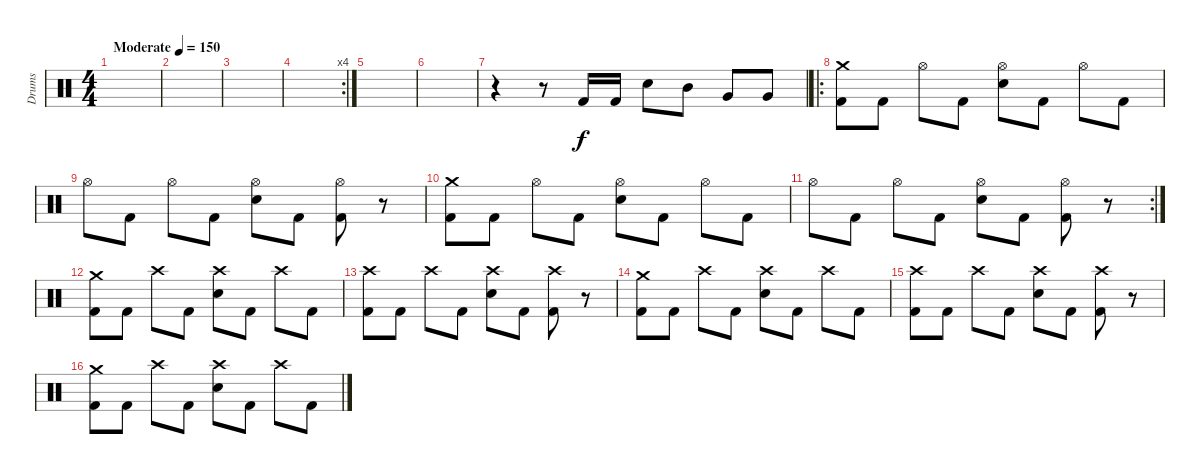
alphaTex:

\track ("Drums" "Drums") {instrument percussion}
\staff {score}
\articulation defaults
\ts (4 4)
\tempo (150 "Moderate")
\clef neutral
\ks c
|
|
|
\rc 4
|
|
|
r.4 r.8 "Kick (hit) 2".16 "Kick (hit) 2".16 "Electric Snare (hit)".8 "Mid Tom (hit)".8 "Very Low Tom (hit)".8 "Very Low Tom (hit)".8 |
\ro
("Kick (hit) 2" "Crash medium (hit)").8 "Kick (hit) 2".8 "Hi-Hat (open)".8 "Kick (hit) 2".8 ("Electric Snare (hit)" "Hi-Hat (open)").8 "Kick (hit) 2".8 "Hi-Hat (open)".8 "Kick (hit) 2".8 |
"Hi-Hat (open)".8 "Kick (hit) 2".8 "Hi-Hat (open)".8 "Kick (hit) 2".8 ("Electric Snare (hit)" "Hi-Hat (open)").8 "Kick (hit) 2".8 ("Kick (hit) 2" "Hi-Hat (open)").8 r.8 |
("Kick (hit) 2" "Crash medium (hit)").8 "Kick (hit) 2".8 "Hi-Hat (open)".8 "Kick (hit) 2".8 ("Electric Snare (hit)" "Hi-Hat (open)").8 "Kick (hit) 2".8 "Hi-Hat (open)".8 "Kick (hit) 2".8 |
\rc 2 "Hi-Hat (open)".8 "Kick (hit) 2".8 "Hi-Hat (open)".8 "Kick (hit) 2".8
("Electric Snare (hit)" "Hi-Hat (open)").8 "Kick (hit) 2".8 ("Kick (hit) 2" "Hi-Hat (open)").8 r.8 |
("Kick (hit) 2" "Crash medium (hit)").8 "Kick (hit) 2".8 "Crash high (hit)".8 "Kick (hit) 2".8 ("Electric Snare (hit)" "Crash high (hit)").8 "Kick (hit) 2".8 "Crash high (hit)".8 "Kick (hit) 2".8 |
("Kick (hit) 2" "Crash high (hit)").8 "Kick (hit) 2".8 "Crash high (hit)".8 "Kick (hit) 2".8 ("Electric Snare (hit)" "Crash high (hit)").8 "Kick (hit) 2".8 ("Kick (hit) 2" "Crash high (hit)").8 r.8 |
("Kick (hit) 2" "Crash medium (hit)").8 "Kick (hit) 2".8 "Crash high (hit)".8 "Kick (hit) 2".8 ("Electric Snare (hit)" "Crash high (hit)").8 "Kick (hit) 2".8 "Crash high (hit)".8 "Kick (hit) 2".8 |
("Kick (hit) 2" "Crash high (hit)").8 "Kick (hit) 2".8 "Crash high (hit)".8 "Kick (hit) 2".8 ("Electric Snare (hit)" "Crash high (hit)").8 "Kick (hit) 2".8 ("Kick (hit) 2" "Crash high (hit)").8 r.8 |
("Kick (hit) 2" "Crash medium (hit)").8 "Kick (hit) 2".8 "Crash high (hit)".8 "Kick (hit) 2".8 ("Electric Snare (hit)" "Crash high (hit)").8 "Kick (hit) 2".8 "Crash high (hit)".8 "Kick (hit) 2".8
